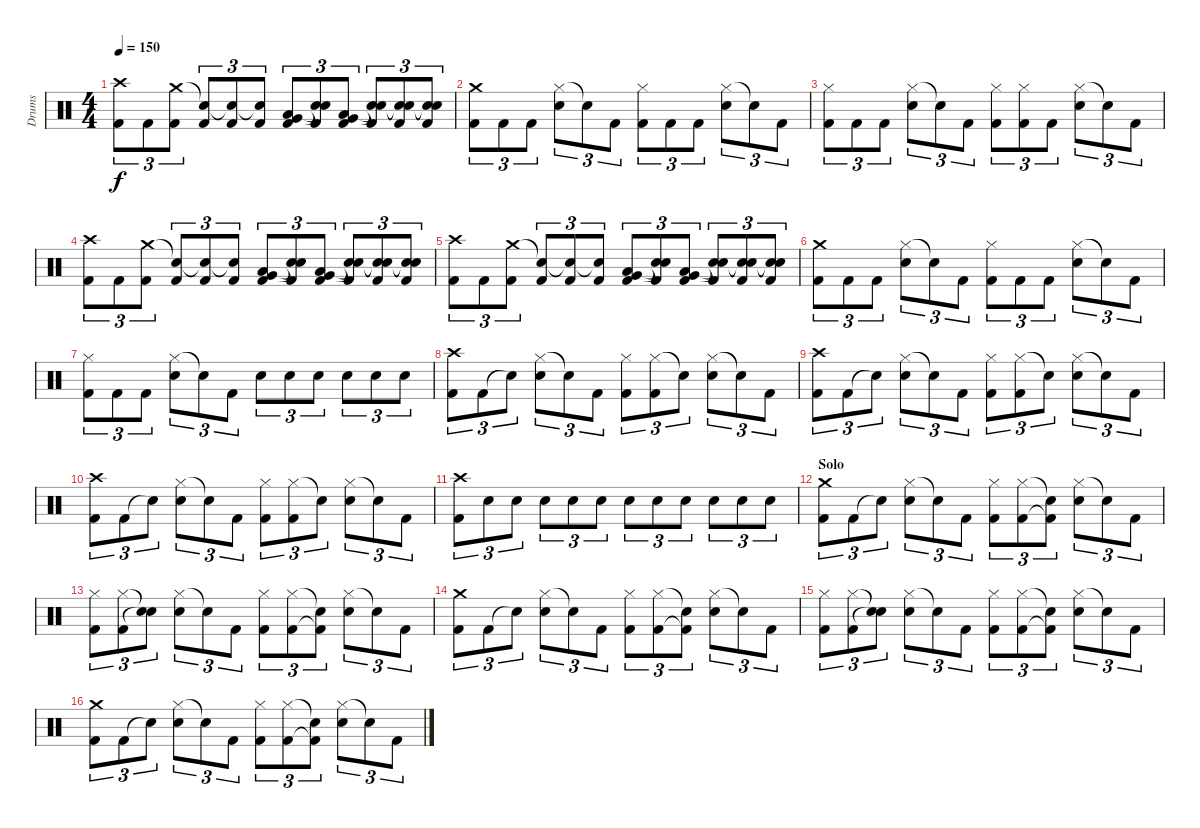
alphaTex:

\track ("Drums" "Drums") {instrument percussion}
\staff {score}
\articulation defaults
\ts (4 4)
\tempo 150
\clef neutral
\ks c
("Crash high (hit)" "Kick (hit) 2").8{tu (3 2) dy f} "Kick (hit) 2".8{tu (3 2)} ("Crash medium (hit)" "Kick (hit) 2").8{tu (3 2)} ("Snare (hit)"{t} "Kick (hit) 2").8{tu (3 2)} ("Snare (hit)"{t} "Kick (hit) 2").8{tu (3 2)} ("Snare (hit)"{t} "Kick (hit) 2").8{tu (3 2)} ("Low Tom (hit)" "Very Low Tom (hit)" "Kick (hit) 2").8{tu (3 2)} ("Snare (hit)"{t} "Snare (hit)"{t} "Kick (hit) 2").8{tu (3 2)} ("Low Tom (hit)" "Very Low Tom (hit)" "Kick (hit) 2").8{tu (3 2)} ("Snare (hit)"{t} "Snare (hit)"{t} "Kick (hit) 2").8{tu (3 2)} ("Snare (hit)"{t} "Snare (hit)"{t} "Kick (hit) 2").8{tu (3 2)} ("Snare (hit)"{t} "Snare (hit)"{t} "Kick (hit) 2").8{tu (3 2)} |
("Crash medium (hit)" "Kick (hit) 2").8{tu (3 2)} "Kick (hit) 2".8{tu (3 2)} "Kick (hit) 2".8{tu (3 2)} ("Hi-Hat (closed)" "Electric Snare (hit)").8{tu (3 2)} "Snare (hit)"{t}.8{tu (3 2)} "Kick (hit) 2".8{tu (3 2)} ("Hi-Hat (closed)" "Kick (hit) 2").8{tu (3 2)} "Kick (hit) 2".8{tu (3 2)} "Kick (hit) 2".8{tu (3 2)} ("Hi-Hat (closed)" "Electric Snare (hit)").8{tu (3 2)} "Snare (hit)"{t}.8{tu (3 2)} "Kick (hit) 2".8{tu (3 2)} |
("Hi-Hat (closed)" "Kick (hit) 2").8{tu (3 2)} "Kick (hit) 2".8{tu (3 2)} "Kick (hit) 2".8{tu (3 2)} ("Hi-Hat (closed)" "Electric Snare (hit)").8{tu (3 2)} "Snare (hit)"{t}.8{tu (3 2)} "Kick (hit) 2".8{tu (3 2)} ("Hi-Hat (closed)" "Kick (hit) 2").8{tu (3 2)} ("Hi-Hat (closed)" "Kick (hit) 2").8{tu (3 2)} "Kick (hit) 2".8{tu (3 2)} ("Hi-Hat (closed)" "Electric Snare (hit)").8{tu (3 2)} "Snare (hit)"{t}.8{tu (3 2)} "Kick (hit) 2".8{tu (3 2)} |
("Crash high (hit)" "Kick (hit) 2").8{tu (3 2)} "Kick (hit) 2".8{tu (3 2)} ("Crash medium (hit)" "Kick (hit) 2").8{tu (3 2)} ("Snare (hit)"{t} "Kick (hit) 2").8{tu (3 2)} ("Snare (hit)"{t} "Kick (hit) 2").8{tu (3 2)} ("Snare (hit)"{t} "Kick (hit) 2").8{tu (3 2)} ("Low Tom (hit)" "Very Low Tom (hit)" "Kick (hit) 2").8{tu (3 2)} ("Snare (hit)"{t} "Snare (hit)"{t} "Kick (hit) 2").8{tu (3 2)} ("Low Tom (hit)" "Very Low Tom (hit)" "Kick (hit) 2").8{tu (3 2)} ("Snare (hit)"{t} "Snare (hit)"{t} "Kick (hit) 2").8{tu (3 2)} ("Snare (hit)"{t} "Snare (hit)"{t} "Kick (hit) 2").8{tu (3 2)} ("Snare (hit)"{t} "Snare (hit)"{t} "Kick (hit) 2").8{tu (3 2)} |
("Crash high (hit)" "Kick (hit) 2").8{tu (3 2)} "Kick (hit) 2".8{tu (3 2)} ("Crash medium (hit)" "Kick (hit) 2").8{tu (3 2)} ("Snare (hit)"{t} "Kick (hit) 2").8{tu (3 2)} ("Snare (hit)"{t} "Kick (hit) 2").8{tu (3 2)} ("Snare (hit)"{t} "Kick (hit) 2").8{tu (3 2)} ("Low Tom (hit)" "Very Low Tom (hit)" "Kick (hit) 2").8{tu (3 2)} ("Snare (hit)"{t} "Snare (hit)"{t} "Kick (hit) 2").8{tu (3 2)} ("Low Tom (hit)" "Very Low Tom (hit)" "Kick (hit) 2").8{tu (3 2)} ("Snare (hit)"{t} "Snare (hit)"{t} "Kick (hit) 2").8{tu (3 2)} ("Snare (hit)"{t} "Snare (hit)"{t} "Kick (hit) 2").8{tu (3 2)} ("Snare (hit)"{t} "Snare (hit)"{t} "Kick (hit) 2").8{tu (3 2)} |
("Crash medium (hit)" "Kick (hit) 2").8{tu (3 2)} "Kick (hit) 2".8{tu (3 2)} "Kick (hit) 2".8{tu (3 2)} ("Hi-Hat (closed)" "Electric Snare (hit)").8{tu (3 2)} "Snare (hit)"{t}.8{tu (3 2)} "Kick (hit) 2".8{tu (3 2)} ("Hi-Hat (closed)" "Kick (hit) 2").8{tu (3 2)} "Kick (hit) 2".8{tu (3 2)} "Kick (hit) 2".8{tu (3 2)} ("Hi-Hat (closed)" "Electric Snare (hit)").8{tu (3 2)} "Snare (hit)"{t}.8{tu (3 2)} "Kick (hit) 2".8{tu (3 2)} |
("Hi-Hat (closed)" "Kick (hit) 2").8{tu (3 2)} "Kick (hit) 2".8{tu (3 2)} "Kick (hit) 2".8{tu (3 2)} ("Hi-Hat (closed)" "Electric Snare (hit)").8{tu (3 2)} "Snare (hit)"{t}.8{tu (3 2)} "Kick (hit) 2".8{tu (3 2)} "Electric Snare (hit)".8{tu (3 2)} "Electric Snare (hit)".8{tu (3 2)} "Electric Snare (hit)".8{tu (3 2)} "Electric Snare (hit)".8{tu (3 2)} "Electric Snare (hit)".8{tu (3 2)} "Electric Snare (hit)".8{tu (3 2)} |
("Crash high (hit)" "Kick (hit) 2").8{tu (3 2)} "Kick (hit) 2".8{tu (3 2)} "Snare (hit)"{t}.8{tu (3 2)} ("Hi-Hat (closed)" "Electric Snare (hit)").8{tu (3 2)} "Snare (hit)"{t}.8{tu (3 2)} "Kick (hit) 2".8{tu (3 2)} ("Hi-Hat (closed)" "Kick (hit) 2").8{tu (3 2)} ("Hi-Hat (closed)" "Kick (hit) 2").8{tu (3 2)} "Snare (hit)"{t}.8{tu (3 2)} ("Hi-Hat (closed)" "Electric Snare (hit)").8{tu (3 2)} "Snare (hit)"{t}.8{tu (3 2)} "Kick (hit) 2".8{tu (3 2)} |
("Crash high (hit)" "Kick (hit) 2").8{tu (3 2)} "Kick (hit) 2".8{tu (3 2)} "Snare (hit)"{t}.8{tu (3 2)} ("Hi-Hat (closed)" "Electric Snare (hit)").8{tu (3 2)} "Snare (hit)"{t}.8{tu (3 2)} "Kick (hit) 2".8{tu (3 2)} ("Hi-Hat (closed)" "Kick (hit) 2").8{tu (3 2)} ("Hi-Hat (closed)" "Kick (hit) 2").8{tu (3 2)} "Snare (hit)"{t}.8{tu (3 2)} ("Hi-Hat (closed)" "Electric Snare (hit)").8{tu (3 2)} "Snare (hit)"{t}.8{tu (3 2)} "Kick (hit) 2".8{tu (3 2)} |
("Crash high (hit)" "Kick (hit) 2").8{tu (3 2)} "Kick (hit) 2".8{tu (3 2)} "Snare (hit)"{t}.8{tu (3 2)} ("Hi-Hat (closed)" "Electric Snare (hit)").8{tu (3 2)} "Snare (hit)"{t}.8{tu (3 2)} "Kick (hit) 2".8{tu (3 2)} ("Hi-Hat (closed)" "Kick (hit) 2").8{tu (3 2)} ("Hi-Hat (closed)" "Kick (hit) 2").8{tu (3 2)} "Snare (hit)"{t}.8{tu (3 2)} ("Hi-Hat (closed)" "Electric Snare (hit)").8{tu (3 2)} "Snare (hit)"{t}.8{tu (3 2)} "Kick (hit) 2".8{tu (3 2)} |
("Crash high (hit)" "Kick (hit) 2").8{tu (3 2)} "Electric Snare (hit)".8{tu (3 2)} "Electric Snare (hit)".8{tu (3 2)} "Electric Snare (hit)".8{tu (3 2)} "Electric Snare (hit)".8{tu (3 2)} "Electric Snare (hit)".8{tu (3 2)} "Electric Snare (hit)".8{tu (3 2)} "Electric Snare (hit)".8{tu (3 2)} "Electric Snare (hit)".8{tu (3 2)} "Electric Snare (hit)".8{tu (3 2)} "Electric Snare (hit)".8{tu (3 2)} "Electric Snare (hit)".8{tu (3 2)} |
\section ("" "Solo")
("Crash medium (hit)" "Kick (hit) 2").8{tu (3 2)} "Kick (hit) 2".8{tu (3 2)} "Snare (hit)"{t}.8{tu (3 2)} ("Hi-Hat (closed)" "Electric Snare (hit)").8{tu (3 2)} "Snare (hit)"{t}.8{tu (3 2)} "Kick (hit) 2".8{tu (3 2)} ("Hi-Hat (closed)" "Kick (hit) 2").8{tu (3 2)} ("Hi-Hat (closed)" "Kick (hit) 2").8{tu (3 2)} ("Snare (hit)"{t} "Kick (hit) 2"{t}).8{tu (3 2)} ("Hi-Hat (closed)" "Electric Snare (hit)").8{tu (3 2)} "Snare (hit)"{t}.8{tu (3 2)} "Kick (hit) 2".8{tu (3 2)} |
("Hi-Hat (closed)" "Kick (hit) 2").8{tu (3 2)} ("Hi-Hat (closed)" "Kick (hit) 2").8{tu (3 2)} ("Snare (hit)"{t} "Snare (hit)"{t}).8{tu (3 2)} ("Hi-Hat (closed)" "Electric Snare (hit)").8{tu (3 2)} "Snare (hit)"{t}.8{tu (3 2)} "Kick (hit) 2".8{tu (3 2)} ("Hi-Hat (closed)" "Kick (hit) 2").8{tu (3 2)} ("Hi-Hat (closed)" "Kick (hit) 2").8{tu (3 2)} ("Snare (hit)"{t} "Kick (hit) 2"{t}).8{tu (3 2)} ("Hi-Hat (closed)" "Electric Snare (hit)").8{tu (3 2)} "Snare (hit)"{t}.8{tu (3 2)} "Kick (hit) 2".8{tu (3 2)} |
("Crash medium (hit)" "Kick (hit) 2").8{tu (3 2)} "Kick (hit) 2".8{tu (3 2)} "Snare (hit)"{t}.8{tu (3 2)} ("Hi-Hat (closed)" "Electric Snare (hit)").8{tu (3 2)} "Snare (hit)"{t}.8{tu (3 2)} "Kick (hit) 2".8{tu (3 2)} ("Hi-Hat (closed)" "Kick (hit) 2").8{tu (3 2)} ("Hi-Hat (closed)" "Kick (hit) 2").8{tu (3 2)} ("Snare (hit)"{t} "Kick (hit) 2"{t}).8{tu (3 2)} ("Hi-Hat (closed)" "Electric Snare (hit)").8{tu (3 2)} "Snare (hit)"{t}.8{tu (3 2)} "Kick (hit) 2".8{tu (3 2)} |
("Hi-Hat (closed)" "Kick (hit) 2").8{tu (3 2)} ("Hi-Hat (closed)" "Kick (hit) 2").8{tu (3 2)} ("Snare (hit)"{t} "Snare (hit)"{t}).8{tu (3 2)} ("Hi-Hat (closed)" "Electric Snare (hit)").8{tu (3 2)} "Snare (hit)"{t}.8{tu (3 2)} "Kick (hit) 2".8{tu (3 2)} ("Hi-Hat (closed)" "Kick (hit) 2").8{tu (3 2)} ("Hi-Hat (closed)" "Kick (hit) 2").8{tu (3 2)} ("Snare (hit)"{t} "Kick (hit) 2"{t}).8{tu (3 2)} ("Hi-Hat (closed)" "Electric Snare (hit)").8{tu (3 2)} "Snare (hit)"{t}.8{tu (3 2)} "Kick (hit) 2".8{tu (3 2)} |
("Crash medium (hit)" "Kick (hit) 2").8{tu (3 2)} "Kick (hit) 2".8{tu (3 2)} "Snare (hit)"{t}.8{tu (3 2)} ("Hi-Hat (closed)" "Electric Snare (hit)").8{tu (3 2)} "Snare (hit)"{t}.8{tu (3 2)} "Kick (hit) 2".8{tu (3 2)} ("Hi-Hat (closed)" "Kick (hit) 2").8{tu (3 2)} ("Hi-Hat (closed)" "Kick (hit) 2").8{tu (3 2)} ("Snare (hit)"{t} "Kick (hit) 2"{t}).8{tu (3 2)} ("Hi-Hat (closed)" "Electric Snare (hit)").8{tu (3 2)} "Snare (hit)"{t}.8{tu (3 2)} "Kick (hit) 2".8{tu (3 2)}
